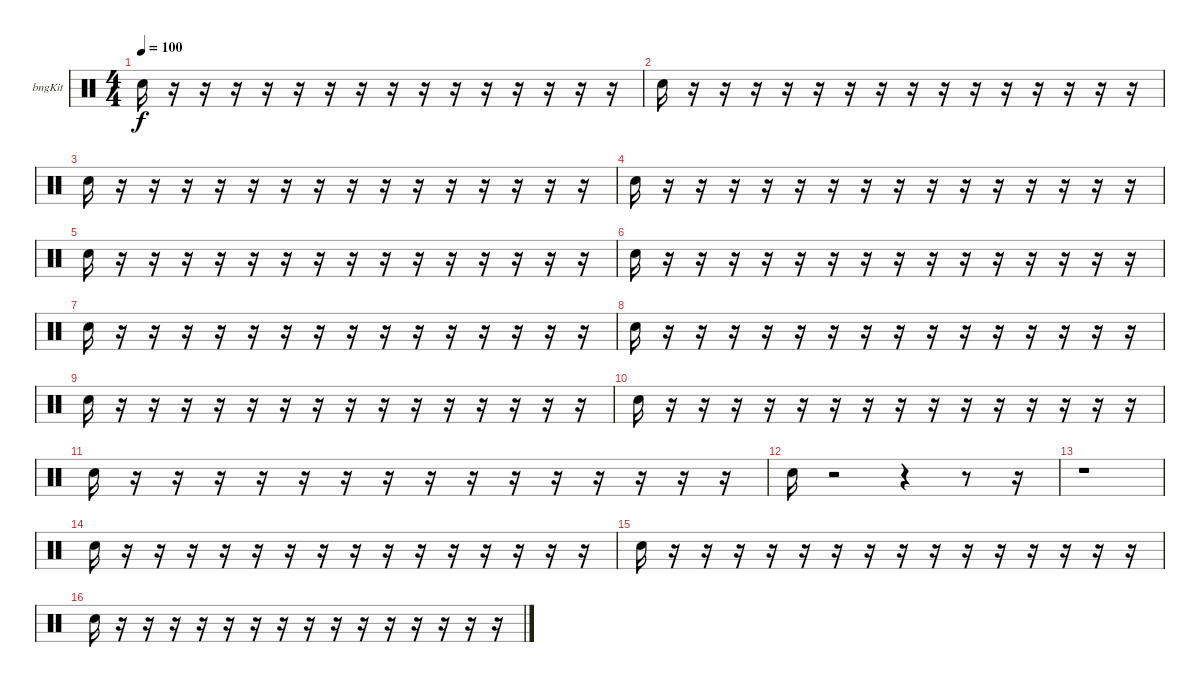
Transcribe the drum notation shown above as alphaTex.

\bracketExtendMode groupsimilarinstruments
\firstSystemTrackNameOrientation horizontal
\otherSystemsTrackNameOrientation horizontal
\track ("Bongos" "bngKit") {instrument percussion}
\staff {score}
\articulation defaults
\ts (4 4)
\tempo 100
\clef neutral
\ks c "Snare (hit) 2".16{dy f}
r.16 r.16 r.16 r.16 r.16 r.16 r.16 r.16 r.16 r.16 r.16 r.16 r.16 r.16 r.16 |
"Snare (hit) 2".16 r.16 r.16 r.16 r.16 r.16 r.16 r.16 r.16 r.16 r.16 r.16 r.16 r.16 r.16 r.16 |
"Snare (hit) 2".16 r.16 r.16 r.16 r.16 r.16 r.16 r.16 r.16 r.16 r.16 r.16 r.16 r.16 r.16 r.16 |
"Snare (hit) 2".16 r.16 r.16 r.16 r.16 r.16 r.16 r.16 r.16 r.16 r.16 r.16 r.16 r.16 r.16 r.16 |
"Snare (hit) 2".16 r.16 r.16 r.16 r.16 r.16 r.16 r.16 r.16 r.16 r.16 r.16 r.16 r.16 r.16 r.16 |
"Snare (hit) 2".16 r.16 r.16 r.16 r.16 r.16 r.16 r.16 r.16 r.16 r.16 r.16 r.16 r.16 r.16 r.16 |
"Snare (hit) 2".16 r.16 r.16 r.16 r.16 r.16 r.16 r.16 r.16 r.16 r.16 r.16 r.16 r.16 r.16 r.16 |
"Snare (hit) 2".16 r.16 r.16 r.16 r.16 r.16 r.16 r.16 r.16 r.16 r.16 r.16 r.16 r.16 r.16 r.16 |
"Snare (hit) 2".16 r.16 r.16 r.16 r.16 r.16 r.16 r.16 r.16 r.16 r.16 r.16 r.16 r.16 r.16 r.16 |
"Snare (hit) 2".16 r.16 r.16 r.16 r.16 r.16 r.16 r.16 r.16 r.16 r.16 r.16 r.16 r.16 r.16 r.16 |
"Snare (hit) 2".16 r.16 r.16 r.16 r.16 r.16 r.16 r.16 r.16 r.16 r.16 r.16 r.16 r.16 r.16 r.16 |
"Snare (hit) 2".16 r.2 r.4 r.8 r.16 |
r.1 |
"Snare (hit) 2".16 r.16 r.16 r.16 r.16 r.16 r.16 r.16 r.16 r.16 r.16 r.16 r.16 r.16 r.16 r.16 |
"Snare (hit) 2".16 r.16 r.16 r.16 r.16 r.16 r.16 r.16 r.16 r.16 r.16 r.16 r.16 r.16 r.16 r.16 |
"Snare (hit) 2".16 r.16 r.16 r.16 r.16 r.16 r.16 r.16 r.16 r.16 r.16 r.16 r.16 r.16 r.16 r.16
